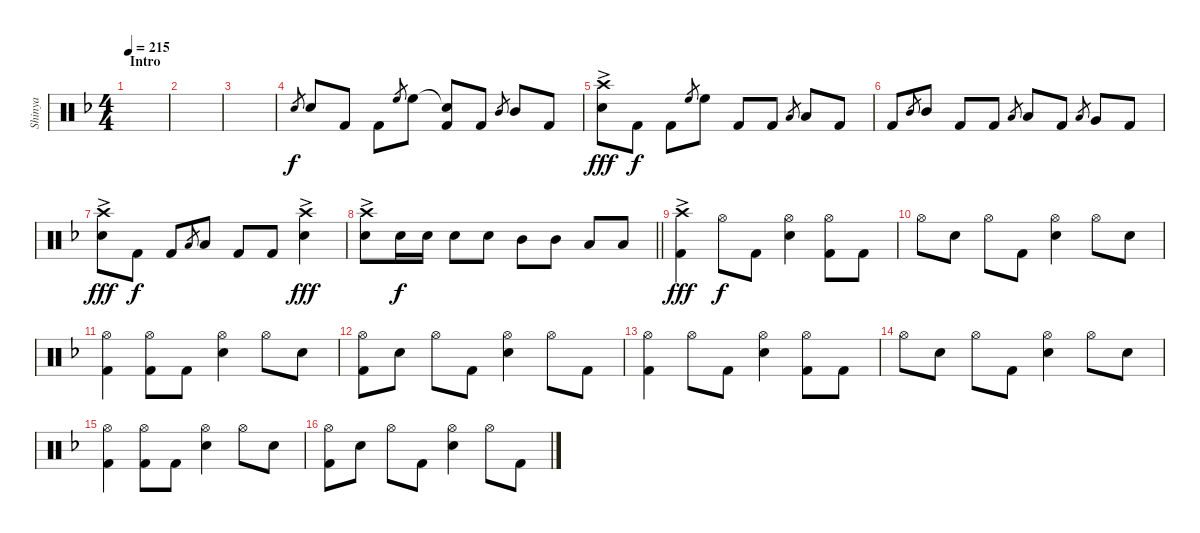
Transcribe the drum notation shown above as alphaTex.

\track ("Shinya" "Shinya") {instrument percussion}
\staff {score}
\articulation defaults
\ts (4 4)
\section ("" "Intro")
\tempo 215
\clef neutral
\ks f
|
|
|
"Snare (hit) 2".8{gr} "Snare (hit) 2".8 "Kick (hit) 2".8 "Kick (hit) 2".8 "High Floor Tom (hit)".8{gr} "High Floor Tom (hit)".8 ("Snare (hit)"{t} "Kick (hit) 2").8 "Kick (hit) 2".8 "Mid Tom (hit)".8{gr} "Mid Tom (hit)".8 "Kick (hit) 2".8 |
("Crash high (hit)"{ac} "Snare (hit) 2").8{dy fff} "Kick (hit) 2".8{dy f} "Kick (hit) 2".8 "High Floor Tom (hit)".8{gr} "High Floor Tom (hit)".8 "Kick (hit) 2".8 "Kick (hit) 2".8 "Low Tom (hit)".8{gr} "Low Tom (hit)".8 "Kick (hit) 2".8 |
"Kick (hit) 2".8 "Mid Tom (hit)".8{gr} "Mid Tom (hit)".8 "Kick (hit) 2".8 "Kick (hit) 2".8 "Low Tom (hit)".8{gr} "Low Tom (hit)".8 "Kick (hit) 2".8 "Low Tom (hit)".8{gr} "Very Low Tom (hit)".8 "Kick (hit) 2".8 |
("Crash high (hit)"{ac} "Snare (hit) 2").8{dy fff} "Kick (hit) 2".8{dy f} "Kick (hit) 2".8 "Low Tom (hit)".8{gr} "Low Tom (hit)".8 "Kick (hit) 2".8 "Kick (hit) 2".8 ("Crash high (hit)"{ac} "Snare (hit) 2").4{dy fff} |
\barLineRight lightlight
("Crash high (hit)"{ac} "Snare (hit) 2").8 "Snare (hit) 2".16{dy f} "Snare (hit) 2".16 "Snare (hit) 2".8 "Snare (hit) 2".8 "Mid Tom (hit)".8 "Mid Tom (hit)".8 "Low Tom (hit)".8 "Low Tom (hit)".8 |
("Crash high (hit)"{ac} "Kick (hit) 2").4{dy fff} "Hi-Hat (open)".8{dy f} "Kick (hit) 2".8 ("Hi-Hat (open)" "Snare (hit) 2").4 ("Hi-Hat (open)" "Kick (hit) 2").8 "Kick (hit) 2".8 |
"Hi-Hat (open)".8 "Snare (hit) 2".8 "Hi-Hat (open)".8 "Kick (hit) 2".8 ("Hi-Hat (open)" "Snare (hit) 2").4 "Hi-Hat (open)".8 "Snare (hit) 2".8 |
("Hi-Hat (open)" "Kick (hit) 2").4 ("Hi-Hat (open)" "Kick (hit) 2").8 "Kick (hit) 2".8 ("Hi-Hat (open)" "Snare (hit) 2").4 "Hi-Hat (open)".8 "Snare (hit) 2".8 |
("Hi-Hat (open)" "Kick (hit) 2").8 "Snare (hit) 2".8 "Hi-Hat (open)".8 "Kick (hit) 2".8 ("Hi-Hat (open)" "Snare (hit) 2").4 "Hi-Hat (open)".8 "Kick (hit) 2".8 |
("Hi-Hat (open)" "Kick (hit) 2").4 "Hi-Hat (open)".8 "Kick (hit) 2".8 ("Hi-Hat (open)" "Snare (hit) 2").4 ("Hi-Hat (open)" "Kick (hit) 2").8 "Kick (hit) 2".8 |
"Hi-Hat (open)".8 "Snare (hit) 2".8 "Hi-Hat (open)".8 "Kick (hit) 2".8 ("Hi-Hat (open)" "Snare (hit) 2").4 "Hi-Hat (open)".8 "Snare (hit) 2".8 |
("Hi-Hat (open)" "Kick (hit) 2").4 ("Hi-Hat (open)" "Kick (hit) 2").8 "Kick (hit) 2".8 ("Hi-Hat (open)" "Snare (hit) 2").4 "Hi-Hat (open)".8 "Snare (hit) 2".8 |
("Hi-Hat (open)" "Kick (hit) 2").8 "Snare (hit) 2".8 "Hi-Hat (open)".8 "Kick (hit) 2".8 ("Hi-Hat (open)" "Snare (hit) 2").4 "Hi-Hat (open)".8 "Kick (hit) 2".8
